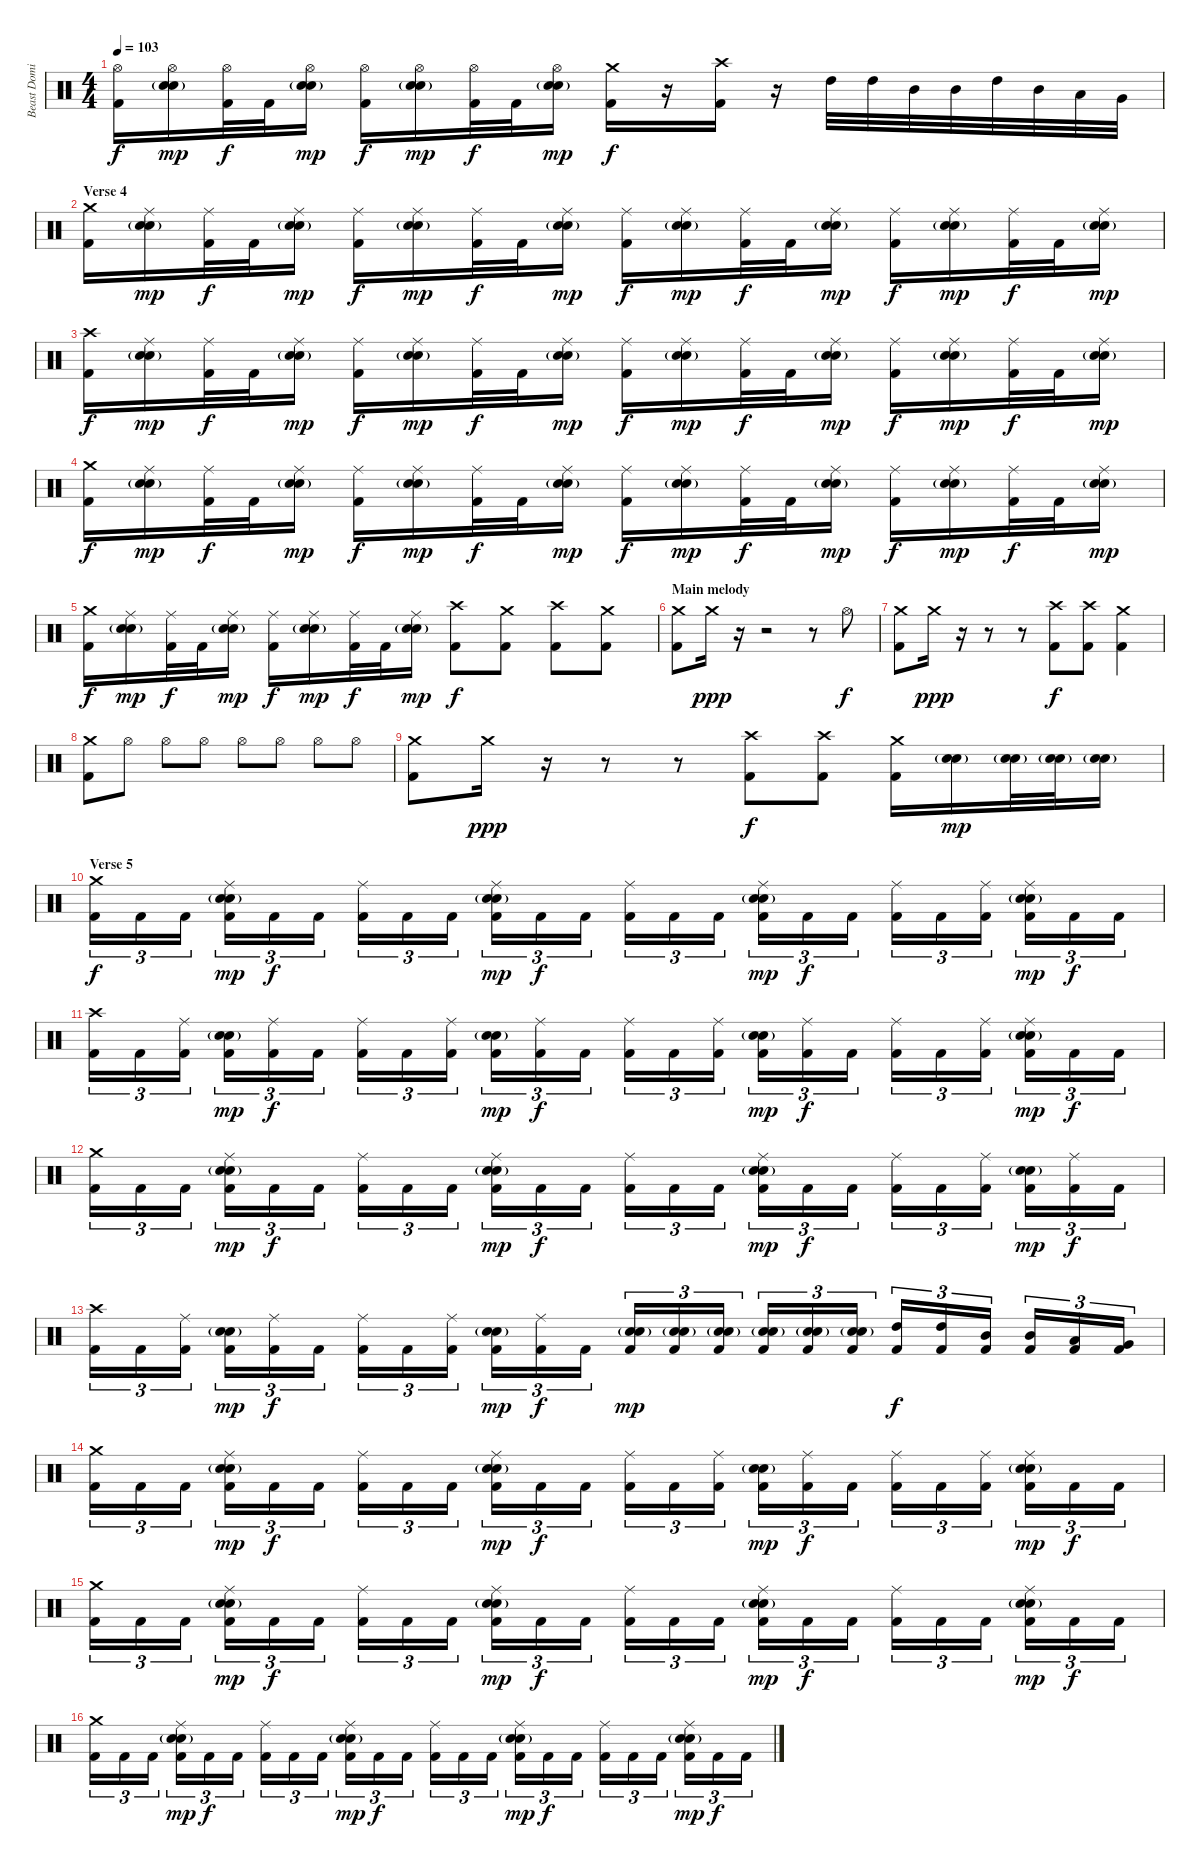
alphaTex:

\track ("Beast Dominator" "Beast Domi") {instrument percussion}
\staff {score}
\articulation defaults
\ts (4 4)
\tempo 103
\clef neutral
\ks c
("Hi-Hat (open)" "Kick (hit) 2").16{dy f} ("Hi-Hat (open)" "Electric Snare (hit)"{g} "Snare (hit) 2").16{dy mp} ("Hi-Hat (open)" "Kick (hit) 2").32{dy f} "Kick (hit) 2".32 ("Hi-Hat (open)" "Electric Snare (hit)"{g} "Snare (hit) 2").16{dy mp} ("Hi-Hat (open)" "Kick (hit) 2").16{dy f} ("Hi-Hat (open)" "Electric Snare (hit)"{g} "Snare (hit) 2").16{dy mp} ("Hi-Hat (open)" "Kick (hit) 2").32{dy f} "Kick (hit) 2".32 ("Hi-Hat (open)" "Electric Snare (hit)"{g} "Snare (hit) 2").16{dy mp} ("Crash medium (hit)" "Kick (hit) 2").16{dy f} r.16 ("Crash high (hit)" "Kick (hit) 2").16 r.16 "High Tom (hit)".32 "High Tom (hit)".32 "Mid Tom (hit)".32 "Mid Tom (hit)".32 "High Tom (hit)".32 "Mid Tom (hit)".32 "Low Tom (hit)".32 "Very Low Tom (hit)".32 |
\section ("" "Verse 4")
("Crash medium (hit)" "Kick (hit) 2").16 ("Ride (middle)" "Electric Snare (hit)"{g} "Snare (hit) 2").16{dy mp} ("Ride (middle)" "Kick (hit) 2").32{dy f} "Kick (hit) 2".32 ("Ride (middle)" "Electric Snare (hit)"{g} "Snare (hit) 2").16{dy mp} ("Ride (middle)" "Kick (hit) 2").16{dy f} ("Ride (middle)" "Electric Snare (hit)"{g} "Snare (hit) 2").16{dy mp} ("Ride (middle)" "Kick (hit) 2").32{dy f} "Kick (hit) 2".32 ("Ride (middle)" "Electric Snare (hit)"{g} "Snare (hit) 2").16{dy mp} ("Ride (middle)" "Kick (hit) 2").16{dy f} ("Ride (middle)" "Electric Snare (hit)"{g} "Snare (hit) 2").16{dy mp} ("Ride (middle)" "Kick (hit) 2").32{dy f} "Kick (hit) 2".32 ("Ride (middle)" "Electric Snare (hit)"{g} "Snare (hit) 2").16{dy mp} ("Ride (middle)" "Kick (hit) 2").16{dy f} ("Ride (middle)" "Electric Snare (hit)"{g} "Snare (hit) 2").16{dy mp} ("Ride (middle)" "Kick (hit) 2").32{dy f} "Kick (hit) 2".32 ("Ride (middle)" "Electric Snare (hit)"{g} "Snare (hit) 2").16{dy mp} |
("Crash high (hit)" "Kick (hit) 2").16{dy f} ("Ride (middle)" "Electric Snare (hit)"{g} "Snare (hit) 2").16{dy mp} ("Ride (middle)" "Kick (hit) 2").32{dy f} "Kick (hit) 2".32 ("Ride (middle)" "Electric Snare (hit)"{g} "Snare (hit) 2").16{dy mp} ("Ride (middle)" "Kick (hit) 2").16{dy f} ("Ride (middle)" "Electric Snare (hit)"{g} "Snare (hit) 2").16{dy mp} ("Ride (middle)" "Kick (hit) 2").32{dy f} "Kick (hit) 2".32 ("Ride (middle)" "Electric Snare (hit)"{g} "Snare (hit) 2").16{dy mp} ("Ride (middle)" "Kick (hit) 2").16{dy f} ("Ride (middle)" "Electric Snare (hit)"{g} "Snare (hit) 2").16{dy mp} ("Ride (middle)" "Kick (hit) 2").32{dy f} "Kick (hit) 2".32 ("Ride (middle)" "Electric Snare (hit)"{g} "Snare (hit) 2").16{dy mp} ("Ride (middle)" "Kick (hit) 2").16{dy f} ("Ride (middle)" "Electric Snare (hit)"{g} "Snare (hit) 2").16{dy mp} ("Ride (middle)" "Kick (hit) 2").32{dy f} "Kick (hit) 2".32 ("Ride (middle)" "Electric Snare (hit)"{g} "Snare (hit) 2").16{dy mp} |
("Crash medium (hit)" "Kick (hit) 2").16{dy f} ("Ride (middle)" "Electric Snare (hit)"{g} "Snare (hit) 2").16{dy mp} ("Ride (middle)" "Kick (hit) 2").32{dy f} "Kick (hit) 2".32 ("Ride (middle)" "Electric Snare (hit)"{g} "Snare (hit) 2").16{dy mp} ("Ride (middle)" "Kick (hit) 2").16{dy f} ("Ride (middle)" "Electric Snare (hit)"{g} "Snare (hit) 2").16{dy mp} ("Ride (middle)" "Kick (hit) 2").32{dy f} "Kick (hit) 2".32 ("Ride (middle)" "Electric Snare (hit)"{g} "Snare (hit) 2").16{dy mp} ("Ride (middle)" "Kick (hit) 2").16{dy f} ("Ride (middle)" "Electric Snare (hit)"{g} "Snare (hit) 2").16{dy mp} ("Ride (middle)" "Kick (hit) 2").32{dy f} "Kick (hit) 2".32 ("Ride (middle)" "Electric Snare (hit)"{g} "Snare (hit) 2").16{dy mp} ("Ride (middle)" "Kick (hit) 2").16{dy f} ("Ride (middle)" "Electric Snare (hit)"{g} "Snare (hit) 2").16{dy mp} ("Ride (middle)" "Kick (hit) 2").32{dy f} "Kick (hit) 2".32 ("Ride (middle)" "Electric Snare (hit)"{g} "Snare (hit) 2").16{dy mp} |
("Crash medium (hit)" "Kick (hit) 2").16{dy f} ("Ride (middle)" "Electric Snare (hit)"{g} "Snare (hit) 2").16{dy mp} ("Ride (middle)" "Kick (hit) 2").32{dy f} "Kick (hit) 2".32 ("Ride (middle)" "Electric Snare (hit)"{g} "Snare (hit) 2").16{dy mp} ("Ride (middle)" "Kick (hit) 2").16{dy f} ("Ride (middle)" "Electric Snare (hit)"{g} "Snare (hit) 2").16{dy mp} ("Ride (middle)" "Kick (hit) 2").32{dy f} "Kick (hit) 2".32 ("Ride (middle)" "Electric Snare (hit)"{g} "Snare (hit) 2").16{dy mp} ("Crash high (hit)" "Kick (hit) 2").8{dy f} ("Crash medium (hit)" "Kick (hit) 2").8 ("Crash high (hit)" "Kick (hit) 2").8 ("Crash medium (hit)" "Kick (hit) 2").8 |
\section ("" "Main melody")
("Crash medium (hit)" "Kick (hit) 2").8 "Crash medium (hit)".16{dy ppp} r.16 r.2 r.8 "Hi-Hat (open)".8{dy f} |
("Crash medium (hit)" "Kick (hit) 2").8 "Crash medium (hit)".16{dy ppp} r.16 r.8 r.8 ("Crash high (hit)" "Kick (hit) 2").8{dy f} ("Crash high (hit)" "Kick (hit) 2").8 ("Crash medium (hit)" "Kick (hit) 2").4 |
("Crash medium (hit)" "Kick (hit) 2").8 "Hi-Hat (open)".8 "Hi-Hat (open)".8 "Hi-Hat (open)".8 "Hi-Hat (open)".8 "Hi-Hat (open)".8 "Hi-Hat (open)".8 "Hi-Hat (open)".8 |
("Crash medium (hit)" "Kick (hit) 2").8 "Crash medium (hit)".16{dy ppp} r.16 r.8 r.8 ("Crash high (hit)" "Kick (hit) 2").8{dy f} ("Crash high (hit)" "Kick (hit) 2").8 ("Crash medium (hit)" "Kick (hit) 2").16 ("Electric Snare (hit)"{g} "Snare (hit) 2").16{dy mp} ("Electric Snare (hit)"{g} "Snare (hit) 2").32 ("Electric Snare (hit)"{g} "Snare (hit) 2").32 ("Electric Snare (hit)"{g} "Snare (hit) 2").16 |
\section ("" "Verse 5")
("Crash medium (hit)" "Kick (hit) 2").16{tu (3 2) dy f} "Kick (hit) 2".16{tu (3 2)} "Kick (hit) 2".16{tu (3 2)} ("Ride (middle)" "Electric Snare (hit)"{g} "Snare (hit) 2" "Kick (hit) 2").16{tu (3 2) dy mp} "Kick (hit) 2".16{tu (3 2) dy f} "Kick (hit) 2".16{tu (3 2)} ("Ride (middle)" "Kick (hit) 2").16{tu (3 2)} "Kick (hit) 2".16{tu (3 2)} "Kick (hit) 2".16{tu (3 2)} ("Ride (middle)" "Electric Snare (hit)"{g} "Snare (hit) 2" "Kick (hit) 2").16{tu (3 2) dy mp} "Kick (hit) 2".16{tu (3 2) dy f} "Kick (hit) 2".16{tu (3 2)} ("Ride (middle)" "Kick (hit) 2").16{tu (3 2)} "Kick (hit) 2".16{tu (3 2)} "Kick (hit) 2".16{tu (3 2)} ("Ride (middle)" "Electric Snare (hit)"{g} "Snare (hit) 2" "Kick (hit) 2").16{tu (3 2) dy mp} "Kick (hit) 2".16{tu (3 2) dy f} "Kick (hit) 2".16{tu (3 2)} ("Ride (middle)" "Kick (hit) 2").16{tu (3 2)} "Kick (hit) 2".16{tu (3 2)} ("Ride (middle)" "Kick (hit) 2").16{tu (3 2)} ("Ride (middle)" "Electric Snare (hit)"{g} "Snare (hit) 2" "Kick (hit) 2").16{tu (3 2) dy mp} "Kick (hit) 2".16{tu (3 2) dy f} "Kick (hit) 2".16{tu (3 2)} |
("Crash high (hit)" "Kick (hit) 2").16{tu (3 2)} "Kick (hit) 2".16{tu (3 2)} ("Ride (middle)" "Kick (hit) 2").16{tu (3 2)} ("Electric Snare (hit)"{g} "Snare (hit) 2" "Kick (hit) 2").16{tu (3 2) dy mp} ("Ride (middle)" "Kick (hit) 2").16{tu (3 2) dy f} "Kick (hit) 2".16{tu (3 2)} ("Ride (middle)" "Kick (hit) 2").16{tu (3 2)} "Kick (hit) 2".16{tu (3 2)} ("Ride (middle)" "Kick (hit) 2").16{tu (3 2)} ("Electric Snare (hit)"{g} "Snare (hit) 2" "Kick (hit) 2").16{tu (3 2) dy mp} ("Ride (middle)" "Kick (hit) 2").16{tu (3 2) dy f} "Kick (hit) 2".16{tu (3 2)} ("Ride (middle)" "Kick (hit) 2").16{tu (3 2)} "Kick (hit) 2".16{tu (3 2)} ("Ride (middle)" "Kick (hit) 2").16{tu (3 2)} ("Electric Snare (hit)"{g} "Snare (hit) 2" "Kick (hit) 2").16{tu (3 2) dy mp} ("Ride (middle)" "Kick (hit) 2").16{tu (3 2) dy f} "Kick (hit) 2".16{tu (3 2)} ("Ride (middle)" "Kick (hit) 2").16{tu (3 2)} "Kick (hit) 2".16{tu (3 2)} ("Ride (middle)" "Kick (hit) 2").16{tu (3 2)} ("Ride (middle)" "Electric Snare (hit)"{g} "Snare (hit) 2" "Kick (hit) 2").16{tu (3 2) dy mp} "Kick (hit) 2".16{tu (3 2) dy f} "Kick (hit) 2".16{tu (3 2)} |
("Crash medium (hit)" "Kick (hit) 2").16{tu (3 2)} "Kick (hit) 2".16{tu (3 2)} "Kick (hit) 2".16{tu (3 2)} ("Ride (middle)" "Electric Snare (hit)"{g} "Snare (hit) 2" "Kick (hit) 2").16{tu (3 2) dy mp} "Kick (hit) 2".16{tu (3 2) dy f} "Kick (hit) 2".16{tu (3 2)} ("Ride (middle)" "Kick (hit) 2").16{tu (3 2)} "Kick (hit) 2".16{tu (3 2)} "Kick (hit) 2".16{tu (3 2)} ("Ride (middle)" "Electric Snare (hit)"{g} "Snare (hit) 2" "Kick (hit) 2").16{tu (3 2) dy mp} "Kick (hit) 2".16{tu (3 2) dy f} "Kick (hit) 2".16{tu (3 2)} ("Ride (middle)" "Kick (hit) 2").16{tu (3 2)} "Kick (hit) 2".16{tu (3 2)} "Kick (hit) 2".16{tu (3 2)} ("Ride (middle)" "Electric Snare (hit)"{g} "Snare (hit) 2" "Kick (hit) 2").16{tu (3 2) dy mp} "Kick (hit) 2".16{tu (3 2) dy f} "Kick (hit) 2".16{tu (3 2)} ("Ride (middle)" "Kick (hit) 2").16{tu (3 2)} "Kick (hit) 2".16{tu (3 2)} ("Ride (middle)" "Kick (hit) 2").16{tu (3 2)} ("Electric Snare (hit)"{g} "Snare (hit) 2" "Kick (hit) 2").16{tu (3 2) dy mp} ("Ride (middle)" "Kick (hit) 2").16{tu (3 2) dy f} "Kick (hit) 2".16{tu (3 2)} |
("Crash high (hit)" "Kick (hit) 2").16{tu (3 2)} "Kick (hit) 2".16{tu (3 2)} ("Ride (middle)" "Kick (hit) 2").16{tu (3 2)} ("Electric Snare (hit)"{g} "Snare (hit) 2" "Kick (hit) 2").16{tu (3 2) dy mp} ("Ride (middle)" "Kick (hit) 2").16{tu (3 2) dy f} "Kick (hit) 2".16{tu (3 2)} ("Ride (middle)" "Kick (hit) 2").16{tu (3 2)} "Kick (hit) 2".16{tu (3 2)} ("Ride (middle)" "Kick (hit) 2").16{tu (3 2)} ("Electric Snare (hit)"{g} "Snare (hit) 2" "Kick (hit) 2").16{tu (3 2) dy mp} ("Ride (middle)" "Kick (hit) 2").16{tu (3 2) dy f} "Kick (hit) 2".16{tu (3 2)} ("Electric Snare (hit)"{g} "Snare (hit) 2" "Kick (hit) 2").16{tu (3 2) dy mp} ("Electric Snare (hit)"{g} "Snare (hit) 2" "Kick (hit) 2").16{tu (3 2)} ("Electric Snare (hit)"{g} "Snare (hit) 2" "Kick (hit) 2").16{tu (3 2)} ("Electric Snare (hit)"{g} "Snare (hit) 2" "Kick (hit) 2").16{tu (3 2)} ("Electric Snare (hit)"{g} "Snare (hit) 2" "Kick (hit) 2").16{tu (3 2)} ("Electric Snare (hit)"{g} "Snare (hit) 2" "Kick (hit) 2").16{tu (3 2)} ("High Tom (hit)" "Kick (hit) 2").16{tu (3 2) dy f} ("High Tom (hit)" "Kick (hit) 2").16{tu (3 2)} ("Mid Tom (hit)" "Kick (hit) 2").16{tu (3 2)} ("Mid Tom (hit)" "Kick (hit) 2").16{tu (3 2)} ("Low Tom (hit)" "Kick (hit) 2").16{tu (3 2)} ("Very Low Tom (hit)" "Kick (hit) 2").16{tu (3 2)} |
\section ("" "")
("Crash medium (hit)" "Kick (hit) 2").16{tu (3 2)} "Kick (hit) 2".16{tu (3 2)} "Kick (hit) 2".16{tu (3 2)} ("Ride (middle)" "Electric Snare (hit)"{g} "Snare (hit) 2" "Kick (hit) 2").16{tu (3 2) dy mp} "Kick (hit) 2".16{tu (3 2) dy f} "Kick (hit) 2".16{tu (3 2)} ("Ride (middle)" "Kick (hit) 2").16{tu (3 2)} "Kick (hit) 2".16{tu (3 2)} "Kick (hit) 2".16{tu (3 2)} ("Ride (middle)" "Electric Snare (hit)"{g} "Snare (hit) 2" "Kick (hit) 2").16{tu (3 2) dy mp} "Kick (hit) 2".16{tu (3 2) dy f} "Kick (hit) 2".16{tu (3 2)} ("Ride (middle)" "Kick (hit) 2").16{tu (3 2)} "Kick (hit) 2".16{tu (3 2)} ("Ride (middle)" "Kick (hit) 2").16{tu (3 2)} ("Electric Snare (hit)"{g} "Snare (hit) 2" "Kick (hit) 2").16{tu (3 2) dy mp} ("Ride (middle)" "Kick (hit) 2").16{tu (3 2) dy f} "Kick (hit) 2".16{tu (3 2)} ("Ride (middle)" "Kick (hit) 2").16{tu (3 2)} "Kick (hit) 2".16{tu (3 2)} ("Ride (middle)" "Kick (hit) 2").16{tu (3 2)} ("Ride (middle)" "Electric Snare (hit)"{g} "Snare (hit) 2" "Kick (hit) 2").16{tu (3 2) dy mp} "Kick (hit) 2".16{tu (3 2) dy f} "Kick (hit) 2".16{tu (3 2)} |
("Crash medium (hit)" "Kick (hit) 2").16{tu (3 2)} "Kick (hit) 2".16{tu (3 2)} "Kick (hit) 2".16{tu (3 2)} ("Ride (middle)" "Electric Snare (hit)"{g} "Snare (hit) 2" "Kick (hit) 2").16{tu (3 2) dy mp} "Kick (hit) 2".16{tu (3 2) dy f} "Kick (hit) 2".16{tu (3 2)} ("Ride (middle)" "Kick (hit) 2").16{tu (3 2)} "Kick (hit) 2".16{tu (3 2)} "Kick (hit) 2".16{tu (3 2)} ("Ride (middle)" "Electric Snare (hit)"{g} "Snare (hit) 2" "Kick (hit) 2").16{tu (3 2) dy mp} "Kick (hit) 2".16{tu (3 2) dy f} "Kick (hit) 2".16{tu (3 2)} ("Ride (middle)" "Kick (hit) 2").16{tu (3 2)} "Kick (hit) 2".16{tu (3 2)} "Kick (hit) 2".16{tu (3 2)} ("Ride (middle)" "Electric Snare (hit)"{g} "Snare (hit) 2" "Kick (hit) 2").16{tu (3 2) dy mp} "Kick (hit) 2".16{tu (3 2) dy f} "Kick (hit) 2".16{tu (3 2)} ("Ride (middle)" "Kick (hit) 2").16{tu (3 2)} "Kick (hit) 2".16{tu (3 2)} "Kick (hit) 2".16{tu (3 2)} ("Ride (middle)" "Electric Snare (hit)"{g} "Snare (hit) 2" "Kick (hit) 2").16{tu (3 2) dy mp} "Kick (hit) 2".16{tu (3 2) dy f} "Kick (hit) 2".16{tu (3 2)} |
("Crash medium (hit)" "Kick (hit) 2").16{tu (3 2)} "Kick (hit) 2".16{tu (3 2)} "Kick (hit) 2".16{tu (3 2)} ("Ride (middle)" "Electric Snare (hit)"{g} "Snare (hit) 2" "Kick (hit) 2").16{tu (3 2) dy mp} "Kick (hit) 2".16{tu (3 2) dy f} "Kick (hit) 2".16{tu (3 2)} ("Ride (middle)" "Kick (hit) 2").16{tu (3 2)} "Kick (hit) 2".16{tu (3 2)} "Kick (hit) 2".16{tu (3 2)} ("Ride (middle)" "Electric Snare (hit)"{g} "Snare (hit) 2" "Kick (hit) 2").16{tu (3 2) dy mp} "Kick (hit) 2".16{tu (3 2) dy f} "Kick (hit) 2".16{tu (3 2)} ("Ride (middle)" "Kick (hit) 2").16{tu (3 2)} "Kick (hit) 2".16{tu (3 2)} "Kick (hit) 2".16{tu (3 2)} ("Ride (middle)" "Electric Snare (hit)"{g} "Snare (hit) 2" "Kick (hit) 2").16{tu (3 2) dy mp} "Kick (hit) 2".16{tu (3 2) dy f} "Kick (hit) 2".16{tu (3 2)} ("Ride (middle)" "Kick (hit) 2").16{tu (3 2)} "Kick (hit) 2".16{tu (3 2)} "Kick (hit) 2".16{tu (3 2)} ("Ride (middle)" "Electric Snare (hit)"{g} "Snare (hit) 2" "Kick (hit) 2").16{tu (3 2) dy mp} "Kick (hit) 2".16{tu (3 2) dy f} "Kick (hit) 2".16{tu (3 2)}
